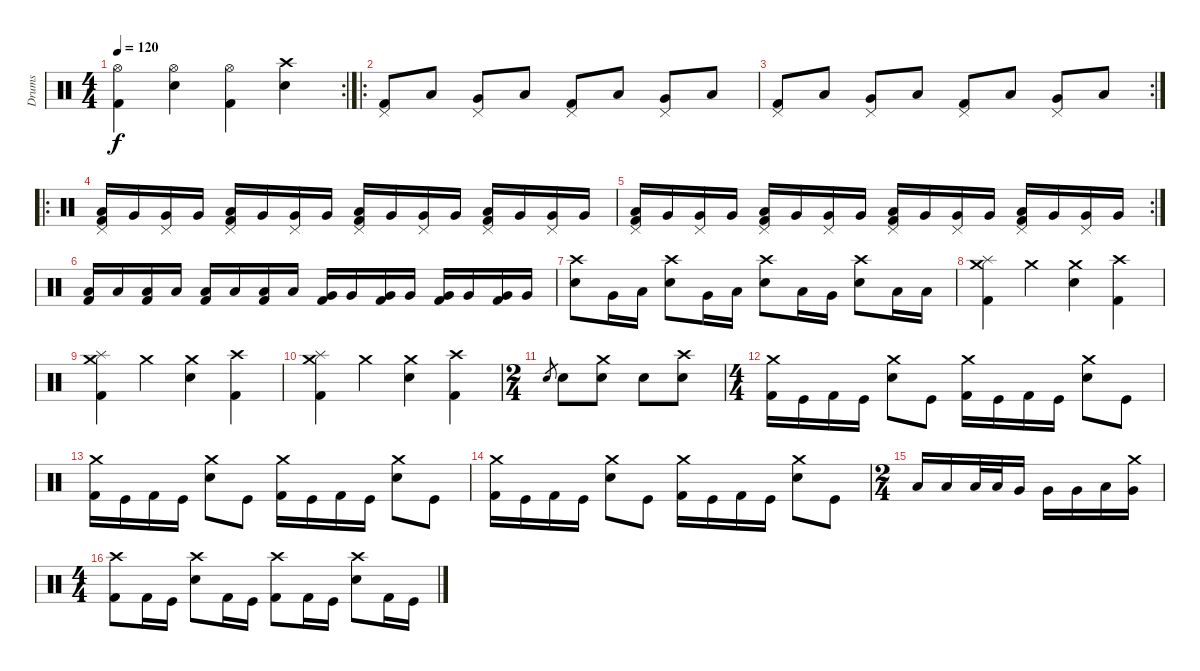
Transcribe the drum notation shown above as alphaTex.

\track ("Drums" "Drums") {instrument percussion}
\staff {score}
\articulation defaults
\rc 2
\ts (4 4)
\tempo 120
\clef neutral
\ks c
("Hi-Hat (open)" "Kick (hit) 2").4{dy f} ("Hi-Hat (open)" "Electric Snare (hit)").4 ("Hi-Hat (open)" "Kick (hit) 2").4 ("Crash high (hit)" "Electric Snare (hit)").4 |
\ro
("Pedal Hi-Hat (hit)" "Kick (hit) 2").8 "Low Tom (hit)".8 ("Pedal Hi-Hat (hit)" "Very Low Tom (hit)").8 "Low Floor Tom (hit)".8 ("Pedal Hi-Hat (hit)" "Kick (hit) 2").8 "Low Tom (hit)".8 ("Pedal Hi-Hat (hit)" "Very Low Tom (hit)").8 "Low Floor Tom (hit)".8 |
\rc 2
("Pedal Hi-Hat (hit)" "Kick (hit) 2").8 "Low Tom (hit)".8 ("Pedal Hi-Hat (hit)" "Very Low Tom (hit)").8 "Low Floor Tom (hit)".8 ("Pedal Hi-Hat (hit)" "Kick (hit) 2").8 "Low Tom (hit)".8 ("Pedal Hi-Hat (hit)" "Very Low Tom (hit)").8 "Low Floor Tom (hit)".8 |
\ro
("Pedal Hi-Hat (hit)" "Low Tom (hit)" "Kick (hit) 2").16 "Very Low Tom (hit)".16 ("Pedal Hi-Hat (hit)" "Very Low Tom (hit)").16 "Very Low Tom (hit)".16 ("Pedal Hi-Hat (hit)" "Low Tom (hit)" "Kick (hit) 2").16 "Very Low Tom (hit)".16 ("Pedal Hi-Hat (hit)" "Very Low Tom (hit)").16 "Very Low Tom (hit)".16 ("Pedal Hi-Hat (hit)" "Low Tom (hit)" "Kick (hit) 2").16 "Very Low Tom (hit)".16 ("Pedal Hi-Hat (hit)" "Very Low Tom (hit)").16 "Very Low Tom (hit)".16 ("Pedal Hi-Hat (hit)" "Low Tom (hit)" "Kick (hit) 2").16 "Very Low Tom (hit)".16 ("Pedal Hi-Hat (hit)" "Very Low Tom (hit)").16 "Very Low Tom (hit)".16 |
\rc 2
("Pedal Hi-Hat (hit)" "Low Tom (hit)" "Kick (hit) 2").16 "Very Low Tom (hit)".16 ("Pedal Hi-Hat (hit)" "Very Low Tom (hit)").16 "Very Low Tom (hit)".16 ("Pedal Hi-Hat (hit)" "Low Tom (hit)" "Kick (hit) 2").16 "Very Low Tom (hit)".16 ("Pedal Hi-Hat (hit)" "Very Low Tom (hit)").16 "Very Low Tom (hit)".16 ("Pedal Hi-Hat (hit)" "Low Floor Tom (hit)" "Kick (hit) 2").16 "Very Low Tom (hit)".16 ("Pedal Hi-Hat (hit)" "Very Low Tom (hit)").16 "Very Low Tom (hit)".16 ("Pedal Hi-Hat (hit)" "Low Floor Tom (hit)" "Kick (hit) 2").16 "Very Low Tom (hit)".16 ("Pedal Hi-Hat (hit)" "Very Low Tom (hit)").16 "Very Low Tom (hit)".16 |
("Low Floor Tom (hit)" "Kick (hit) 2").16 "Low Floor Tom (hit)".16 ("Low Floor Tom (hit)" "Kick (hit) 2").16 "Low Floor Tom (hit)".16 ("Low Floor Tom (hit)" "Kick (hit) 2").16 "Low Floor Tom (hit)".16 ("Low Floor Tom (hit)" "Kick (hit) 2").16 "Low Floor Tom (hit)".16 ("Very Low Tom (hit)" "Kick (hit) 2").16 "Very Low Tom (hit)".16 ("Very Low Tom (hit)" "Kick (hit) 2").16 "Very Low Tom (hit)".16 ("Very Low Tom (hit)" "Kick (hit) 2").16 "Very Low Tom (hit)".16 ("Very Low Tom (hit)" "Kick (hit) 2").16 "Very Low Tom (hit)".16 |
("Crash high (hit)" "Snare (hit) 2").8 "Very Low Tom (hit)".16 "Low Tom (hit)".16 ("Crash high (hit)" "Snare (hit) 2").8 "Very Low Tom (hit)".16 "Low Tom (hit)".16 ("Crash high (hit)" "Snare (hit) 2").8 "Low Floor Tom (hit)".16 "Very Low Tom (hit)".16 ("Crash high (hit)" "Snare (hit) 2").8 "Low Floor Tom (hit)".16 "Low Floor Tom (hit)".16 |
("Splash (hit)" "Crash medium (hit)" "Kick (hit) 2").4 "Crash medium (hit)".4 ("Crash medium (hit)" "Snare (hit) 2").4 ("Crash high (hit)" "Kick (hit) 2").4 |
("Splash (hit)" "Crash medium (hit)" "Kick (hit) 2").4 "Crash medium (hit)".4 ("Crash medium (hit)" "Snare (hit) 2").4 ("Crash high (hit)" "Kick (hit) 2").4 |
("Splash (hit)" "Crash medium (hit)" "Kick (hit) 2").4 "Crash medium (hit)".4 ("Crash medium (hit)" "Snare (hit) 2").4 ("Crash high (hit)" "Kick (hit) 2").4 |
\ts (2 4)
"Snare (hit) 2".8{gr} "Snare (hit) 2".8 ("Crash medium (hit)" "Snare (hit) 2").8 "Snare (hit) 2".8 ("Crash high (hit)" "Snare (hit) 2").8 |
\ts (4 4)
("Crash medium (hit)" "Kick (hit) 2").16 "Kick (hit)".16 "Kick (hit) 2".16 "Kick (hit)".16 ("Crash medium (hit)" "Snare (hit) 2").8 "Kick (hit)".8 ("Crash medium (hit)" "Kick (hit) 2").16 "Kick (hit)".16 "Kick (hit) 2".16 "Kick (hit)".16 ("Crash medium (hit)" "Snare (hit) 2").8 "Kick (hit)".8 |
("Crash medium (hit)" "Kick (hit) 2").16 "Kick (hit)".16 "Kick (hit) 2".16 "Kick (hit)".16 ("Crash medium (hit)" "Snare (hit) 2").8 "Kick (hit)".8 ("Crash medium (hit)" "Kick (hit) 2").16 "Kick (hit)".16 "Kick (hit) 2".16 "Kick (hit)".16 ("Crash medium (hit)" "Snare (hit) 2").8 "Kick (hit)".8 |
("Crash medium (hit)" "Kick (hit) 2").16 "Kick (hit)".16 "Kick (hit) 2".16 "Kick (hit)".16 ("Crash medium (hit)" "Snare (hit) 2").8 "Kick (hit)".8 ("Crash medium (hit)" "Kick (hit) 2").16 "Kick (hit)".16 "Kick (hit) 2".16 "Kick (hit)".16 ("Crash medium (hit)" "Snare (hit) 2").8 "Kick (hit)".8 |
\ts (2 4)
"Low Tom (hit)".16 "Low Tom (hit)".16 "Low Tom (hit)".32 "Low Tom (hit)".32 "Very Low Tom (hit)".16 "Very Low Tom (hit)".16 "Very Low Tom (hit)".16 "Low Floor Tom (hit)".16 ("Crash medium (hit)" "Very Low Tom (hit)").16 |
\ts (4 4)
("Crash high (hit)" "Kick (hit) 2").8 "Kick (hit) 2".16 "Kick (hit)".16 ("Crash high (hit)" "Snare (hit) 2").8 "Kick (hit) 2".16 "Kick (hit)".16 ("Crash high (hit)" "Kick (hit) 2").8 "Kick (hit) 2".16 "Kick (hit)".16 ("Crash high (hit)" "Snare (hit) 2").8 "Kick (hit) 2".16 "Kick (hit)".16
